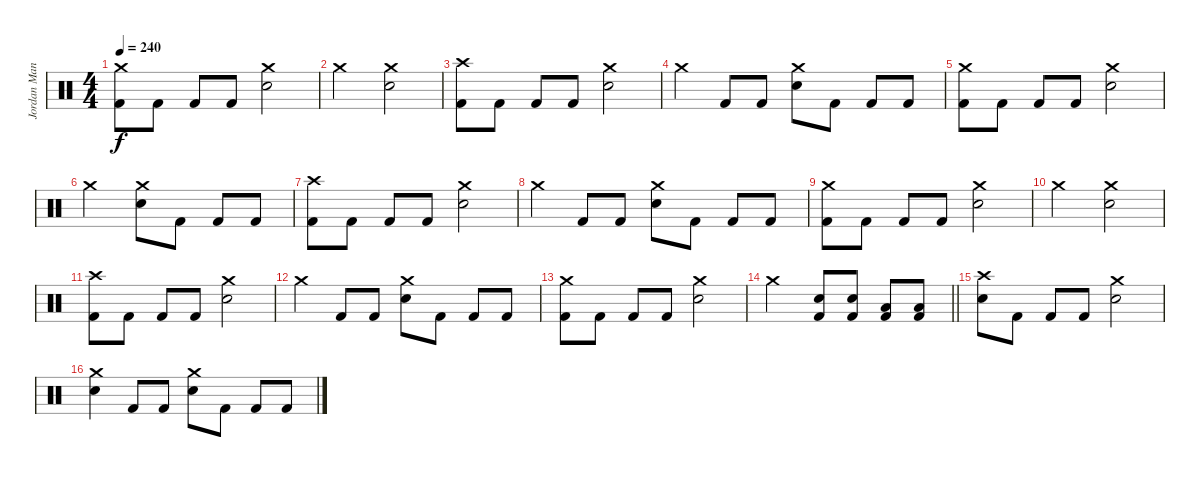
\track ("Jordan Mancino" "Jordan Man") {instrument percussion}
\staff {score}
\articulation defaults
\ts (4 4)
\tempo 240
\clef neutral
\ks c
("Crash medium (hit)" "Kick (hit) 2").8{dy f} "Kick (hit) 2".8 "Kick (hit) 2".8 "Kick (hit) 2".8 ("Crash medium (hit)" "Electric Snare (hit)").2 |
"Crash medium (hit)".2 ("Crash medium (hit)" "Electric Snare (hit)").2 |
("Crash high (hit)" "Kick (hit) 2").8 "Kick (hit) 2".8 "Kick (hit) 2".8 "Kick (hit) 2".8 ("Crash medium (hit)" "Electric Snare (hit)").2 |
"Crash medium (hit)".4 "Kick (hit) 2".8 "Kick (hit) 2".8 ("Crash medium (hit)" "Electric Snare (hit)").8 "Kick (hit) 2".8 "Kick (hit) 2".8 "Kick (hit) 2".8 |
("Crash medium (hit)" "Kick (hit) 2").8 "Kick (hit) 2".8 "Kick (hit) 2".8 "Kick (hit) 2".8 ("Crash medium (hit)" "Electric Snare (hit)").2 |
"Crash medium (hit)".2 ("Crash medium (hit)" "Electric Snare (hit)").8 "Kick (hit) 2".8 "Kick (hit) 2".8 "Kick (hit) 2".8 |
("Crash high (hit)" "Kick (hit) 2").8 "Kick (hit) 2".8 "Kick (hit) 2".8 "Kick (hit) 2".8 ("Crash medium (hit)" "Electric Snare (hit)").2 |
"Crash medium (hit)".4 "Kick (hit) 2".8 "Kick (hit) 2".8 ("Crash medium (hit)" "Electric Snare (hit)").8 "Kick (hit) 2".8 "Kick (hit) 2".8 "Kick (hit) 2".8 |
("Crash medium (hit)" "Kick (hit) 2").8 "Kick (hit) 2".8 "Kick (hit) 2".8 "Kick (hit) 2".8 ("Crash medium (hit)" "Electric Snare (hit)").2 |
"Crash medium (hit)".2 ("Crash medium (hit)" "Electric Snare (hit)").2 |
("Crash high (hit)" "Kick (hit) 2").8 "Kick (hit) 2".8 "Kick (hit) 2".8 "Kick (hit) 2".8 ("Crash medium (hit)" "Electric Snare (hit)").2 |
"Crash medium (hit)".4 "Kick (hit) 2".8 "Kick (hit) 2".8 ("Crash medium (hit)" "Electric Snare (hit)").8 "Kick (hit) 2".8 "Kick (hit) 2".8 "Kick (hit) 2".8 |
("Crash medium (hit)" "Kick (hit) 2").8 "Kick (hit) 2".8 "Kick (hit) 2".8 "Kick (hit) 2".8 ("Crash medium (hit)" "Electric Snare (hit)").2 |
\barLineRight lightlight "Crash medium (hit)".2
("Electric Snare (hit)" "Kick (hit) 2").8 ("Electric Snare (hit)" "Kick (hit) 2").8 ("Low Tom (hit)" "Kick (hit) 2").8 ("Low Tom (hit)" "Kick (hit) 2").8 |
("Crash high (hit)" "Electric Snare (hit)").8{volume 16} "Kick (hit) 2".8 "Kick (hit) 2".8 "Kick (hit) 2".8 ("Crash medium (hit)" "Electric Snare (hit)").2 |
("Crash medium (hit)" "Electric Snare (hit)").4 "Kick (hit) 2".8 "Kick (hit) 2".8 ("Crash medium (hit)" "Electric Snare (hit)").8 "Kick (hit) 2".8 "Kick (hit) 2".8 "Kick (hit) 2".8
